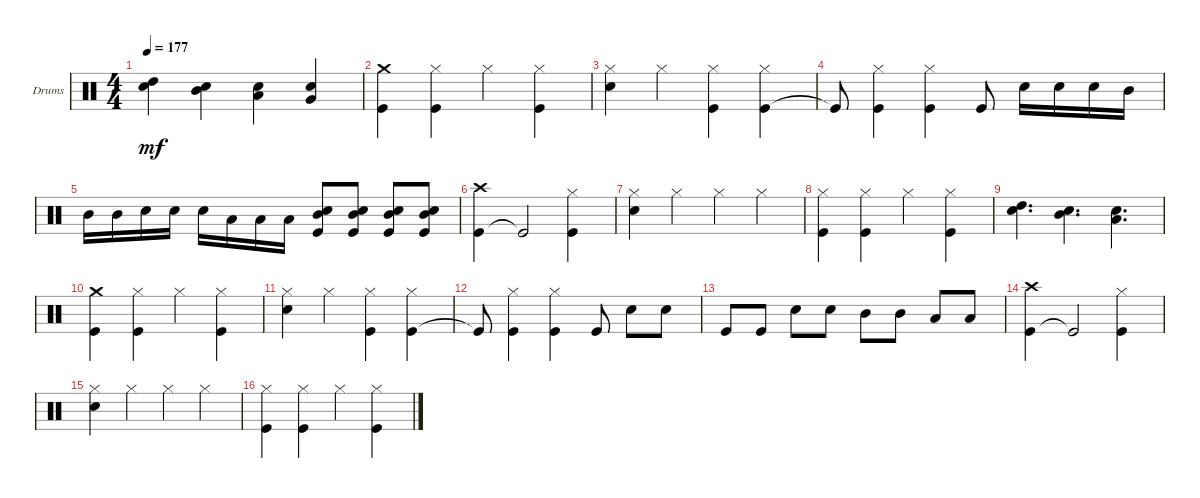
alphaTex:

\defaultSystemsLayout 4
\bracketExtendMode groupsimilarinstruments
\firstSystemTrackNameOrientation horizontal
\otherSystemsTrackNameOrientation horizontal
\track ("Johnny Kelly" "Drums") {instrument percussion}
\staff {score}
\articulation defaults
\ts (4 4)
\tempo 177
\clef neutral
\ks c
("Snare (hit) 2" "High Tom (hit)").4{dy mf} ("Snare (hit) 2" "Mid Tom (hit)").4 ("Snare (hit) 2" "Low Tom (hit)").4 ("Snare (hit) 2" "Very Low Tom (hit)").4 |
("Kick (hit)" "Crash medium (hit)").4 ("Kick (hit)" "Hi-Hat (closed)").4 "Hi-Hat (closed)".4 ("Kick (hit)" "Hi-Hat (closed)").4 |
("Snare (hit) 2" "Hi-Hat (closed)").4 "Hi-Hat (closed)".4 ("Kick (hit)" "Hi-Hat (closed)").4 ("Kick (hit)" "Hi-Hat (closed)").4 |
"Kick (hit)"{t}.8 ("Kick (hit)" "Hi-Hat (closed)").4 ("Kick (hit)" "Hi-Hat (closed)").4 "Kick (hit)".8 "Snare (hit) 2".16 "Snare (hit) 2".16 "Snare (hit) 2".16 "Mid Tom (hit)".16 |
"Mid Tom (hit)".16 "Mid Tom (hit)".16 "Snare (hit) 2".16 "Snare (hit) 2".16 "Snare (hit) 2".16 "Low Tom (hit)".16 "Low Tom (hit)".16 "Low Tom (hit)".16 ("Snare (hit) 2" "Mid Tom (hit)" "Kick (hit)").8 ("Snare (hit) 2" "Mid Tom (hit)" "Kick (hit)").8 ("Snare (hit) 2" "Mid Tom (hit)" "Kick (hit)").8 ("Snare (hit) 2" "Mid Tom (hit)" "Kick (hit)").8 |
("Kick (hit)" "Crash high (hit)").4 "Kick (hit)"{t}.2 ("Kick (hit)" "Hi-Hat (closed)").4 |
("Snare (hit) 2" "Hi-Hat (closed)").4 "Hi-Hat (closed)".4 "Hi-Hat (closed)".4 "Hi-Hat (closed)".4 |
("Kick (hit)" "Hi-Hat (closed)").4 ("Kick (hit)" "Hi-Hat (closed)").4 "Hi-Hat (closed)".4 ("Kick (hit)" "Hi-Hat (closed)").4 |
("Snare (hit) 2" "High Tom (hit)").4{d} ("Snare (hit) 2" "Mid Tom (hit)").4{d} ("Snare (hit) 2" "Low Tom (hit)").4{d} |
("Kick (hit)" "Crash medium (hit)").4 ("Kick (hit)" "Hi-Hat (closed)").4 "Hi-Hat (closed)".4 ("Kick (hit)" "Hi-Hat (closed)").4 |
("Snare (hit) 2" "Hi-Hat (closed)").4 "Hi-Hat (closed)".4 ("Kick (hit)" "Hi-Hat (closed)").4 ("Kick (hit)" "Hi-Hat (closed)").4 |
"Kick (hit)"{t}.8 ("Kick (hit)" "Hi-Hat (closed)").4 ("Kick (hit)" "Hi-Hat (closed)").4 "Kick (hit)".8 "Snare (hit) 2".8 "Snare (hit) 2".8 |
"Kick (hit)".8 "Kick (hit)".8 "Snare (hit) 2".8 "Snare (hit) 2".8 "Mid Tom (hit)".8 "Mid Tom (hit)".8 "Low Tom (hit)".8 "Low Tom (hit)".8 |
("Kick (hit)" "Crash high (hit)").4 "Kick (hit)"{t}.2 ("Kick (hit)" "Hi-Hat (closed)").4 |
("Snare (hit) 2" "Hi-Hat (closed)").4 "Hi-Hat (closed)".4 "Hi-Hat (closed)".4 "Hi-Hat (closed)".4 |
("Kick (hit)" "Hi-Hat (closed)").4 ("Kick (hit)" "Hi-Hat (closed)").4 "Hi-Hat (closed)".4 ("Kick (hit)" "Hi-Hat (closed)").4
